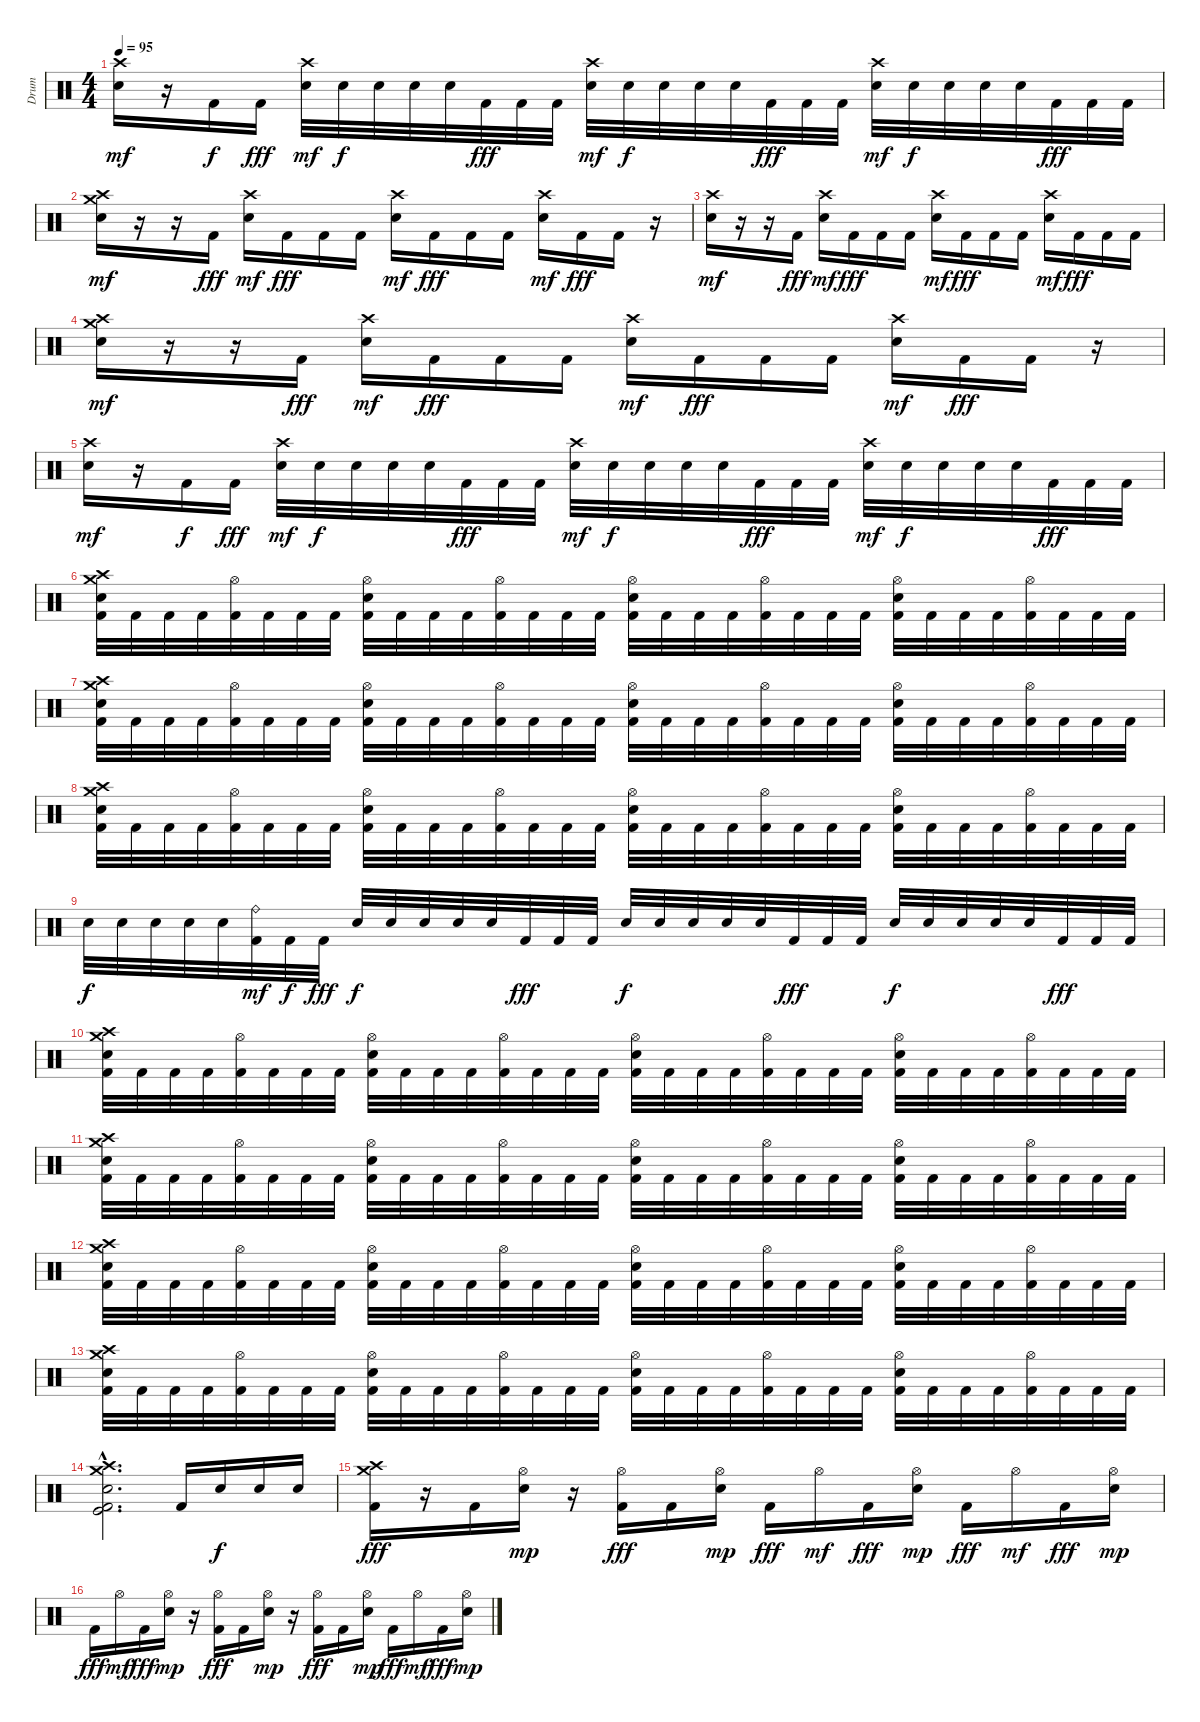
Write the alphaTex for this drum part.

\track ("Drum" "Drum") {instrument percussion}
\staff {score}
\articulation defaults
\ts (4 4)
\tempo 95
\clef neutral
\ks c
("Crash high (hit)" "Electric Snare (hit)").16{dy mf} r.16 "Kick (hit) 2".16{dy f} "Kick (hit) 2".16{dy fff} ("Crash high (hit)" "Electric Snare (hit)").32{dy mf} "Electric Snare (hit)".32{dy f} "Electric Snare (hit)".32 "Electric Snare (hit)".32 "Electric Snare (hit)".32 "Kick (hit) 2".32{dy fff} "Kick (hit) 2".32 "Kick (hit) 2".32 ("Crash high (hit)" "Electric Snare (hit)").32{dy mf} "Electric Snare (hit)".32{dy f} "Electric Snare (hit)".32 "Electric Snare (hit)".32 "Electric Snare (hit)".32 "Kick (hit) 2".32{dy fff} "Kick (hit) 2".32 "Kick (hit) 2".32 ("Crash high (hit)" "Electric Snare (hit)").32{dy mf} "Electric Snare (hit)".32{dy f} "Electric Snare (hit)".32 "Electric Snare (hit)".32 "Electric Snare (hit)".32 "Kick (hit) 2".32{dy fff} "Kick (hit) 2".32 "Kick (hit) 2".32 |
("Crash medium (hit)" "Crash high (hit)" "Electric Snare (hit)").16{dy mf} r.16 r.16 "Kick (hit) 2".16{dy fff} ("Crash high (hit)" "Electric Snare (hit)").16{dy mf} "Kick (hit) 2".16{dy fff} "Kick (hit) 2".16 "Kick (hit) 2".16 ("Crash high (hit)" "Electric Snare (hit)").16{dy mf} "Kick (hit) 2".16{dy fff} "Kick (hit) 2".16 "Kick (hit) 2".16 ("Crash high (hit)" "Electric Snare (hit)").16{dy mf} "Kick (hit) 2".16{dy fff} "Kick (hit) 2".16 r.16 |
("Crash high (hit)" "Electric Snare (hit)").16{dy mf} r.16 r.16 "Kick (hit) 2".16{dy fff} ("Crash high (hit)" "Electric Snare (hit)").16{dy mf} "Kick (hit) 2".16{dy fff} "Kick (hit) 2".16 "Kick (hit) 2".16 ("Crash high (hit)" "Electric Snare (hit)").16{dy mf} "Kick (hit) 2".16{dy fff} "Kick (hit) 2".16 "Kick (hit) 2".16 ("Crash high (hit)" "Electric Snare (hit)").16{dy mf} "Kick (hit) 2".16{dy fff} "Kick (hit) 2".16 "Kick (hit) 2".16 |
("Crash medium (hit)" "Crash high (hit)" "Electric Snare (hit)").16{dy mf} r.16 r.16 "Kick (hit) 2".16{dy fff} ("Crash high (hit)" "Electric Snare (hit)").16{dy mf} "Kick (hit) 2".16{dy fff} "Kick (hit) 2".16 "Kick (hit) 2".16 ("Crash high (hit)" "Electric Snare (hit)").16{dy mf} "Kick (hit) 2".16{dy fff} "Kick (hit) 2".16 "Kick (hit) 2".16 ("Crash high (hit)" "Electric Snare (hit)").16{dy mf} "Kick (hit) 2".16{dy fff} "Kick (hit) 2".16 r.16 |
("Crash high (hit)" "Electric Snare (hit)").16{dy mf} r.16 "Kick (hit) 2".16{dy f} "Kick (hit) 2".16{dy fff} ("Crash high (hit)" "Electric Snare (hit)").32{dy mf} "Electric Snare (hit)".32{dy f} "Electric Snare (hit)".32 "Electric Snare (hit)".32 "Electric Snare (hit)".32 "Kick (hit) 2".32{dy fff} "Kick (hit) 2".32 "Kick (hit) 2".32 ("Crash high (hit)" "Electric Snare (hit)").32{dy mf} "Electric Snare (hit)".32{dy f} "Electric Snare (hit)".32 "Electric Snare (hit)".32 "Electric Snare (hit)".32 "Kick (hit) 2".32{dy fff} "Kick (hit) 2".32 "Kick (hit) 2".32 ("Crash high (hit)" "Electric Snare (hit)").32{dy mf} "Electric Snare (hit)".32{dy f} "Electric Snare (hit)".32 "Electric Snare (hit)".32 "Electric Snare (hit)".32 "Kick (hit) 2".32{dy fff} "Kick (hit) 2".32 "Kick (hit) 2".32 |
("Crash medium (hit)" "Crash high (hit)" "Electric Snare (hit)" "Kick (hit) 2").32 "Kick (hit) 2".32 "Kick (hit) 2".32 "Kick (hit) 2".32 ("Hi-Hat (open)" "Kick (hit) 2").32 "Kick (hit) 2".32 "Kick (hit) 2".32 "Kick (hit) 2".32 ("Hi-Hat (open)" "Electric Snare (hit)" "Kick (hit) 2").32 "Kick (hit) 2".32 "Kick (hit) 2".32 "Kick (hit) 2".32 ("Hi-Hat (open)" "Kick (hit) 2").32 "Kick (hit) 2".32 "Kick (hit) 2".32 "Kick (hit) 2".32 ("Hi-Hat (open)" "Electric Snare (hit)" "Kick (hit) 2").32 "Kick (hit) 2".32 "Kick (hit) 2".32 "Kick (hit) 2".32 ("Hi-Hat (open)" "Kick (hit) 2").32 "Kick (hit) 2".32 "Kick (hit) 2".32 "Kick (hit) 2".32 ("Hi-Hat (open)" "Electric Snare (hit)" "Kick (hit) 2").32 "Kick (hit) 2".32 "Kick (hit) 2".32 "Kick (hit) 2".32 ("Hi-Hat (open)" "Kick (hit) 2").32 "Kick (hit) 2".32 "Kick (hit) 2".32 "Kick (hit) 2".32 |
("Crash medium (hit)" "Crash high (hit)" "Electric Snare (hit)" "Kick (hit) 2").32 "Kick (hit) 2".32 "Kick (hit) 2".32 "Kick (hit) 2".32 ("Hi-Hat (open)" "Kick (hit) 2").32 "Kick (hit) 2".32 "Kick (hit) 2".32 "Kick (hit) 2".32 ("Hi-Hat (open)" "Electric Snare (hit)" "Kick (hit) 2").32 "Kick (hit) 2".32 "Kick (hit) 2".32 "Kick (hit) 2".32 ("Hi-Hat (open)" "Kick (hit) 2").32 "Kick (hit) 2".32 "Kick (hit) 2".32 "Kick (hit) 2".32 ("Hi-Hat (open)" "Electric Snare (hit)" "Kick (hit) 2").32 "Kick (hit) 2".32 "Kick (hit) 2".32 "Kick (hit) 2".32 ("Hi-Hat (open)" "Kick (hit) 2").32 "Kick (hit) 2".32 "Kick (hit) 2".32 "Kick (hit) 2".32 ("Hi-Hat (open)" "Electric Snare (hit)" "Kick (hit) 2").32 "Kick (hit) 2".32 "Kick (hit) 2".32 "Kick (hit) 2".32 ("Hi-Hat (open)" "Kick (hit) 2").32 "Kick (hit) 2".32 "Kick (hit) 2".32 "Kick (hit) 2".32 |
("Crash medium (hit)" "Crash high (hit)" "Electric Snare (hit)" "Kick (hit) 2").32 "Kick (hit) 2".32 "Kick (hit) 2".32 "Kick (hit) 2".32 ("Hi-Hat (open)" "Kick (hit) 2").32 "Kick (hit) 2".32 "Kick (hit) 2".32 "Kick (hit) 2".32 ("Hi-Hat (open)" "Electric Snare (hit)" "Kick (hit) 2").32 "Kick (hit) 2".32 "Kick (hit) 2".32 "Kick (hit) 2".32 ("Hi-Hat (open)" "Kick (hit) 2").32 "Kick (hit) 2".32 "Kick (hit) 2".32 "Kick (hit) 2".32 ("Hi-Hat (open)" "Electric Snare (hit)" "Kick (hit) 2").32 "Kick (hit) 2".32 "Kick (hit) 2".32 "Kick (hit) 2".32 ("Hi-Hat (open)" "Kick (hit) 2").32 "Kick (hit) 2".32 "Kick (hit) 2".32 "Kick (hit) 2".32 ("Hi-Hat (open)" "Electric Snare (hit)" "Kick (hit) 2").32 "Kick (hit) 2".32 "Kick (hit) 2".32 "Kick (hit) 2".32 ("Hi-Hat (open)" "Kick (hit) 2").32 "Kick (hit) 2".32 "Kick (hit) 2".32 "Kick (hit) 2".32 |
"Electric Snare (hit)".32{dy f} "Electric Snare (hit)".32 "Electric Snare (hit)".32 "Electric Snare (hit)".32 "Electric Snare (hit)".32 ("Ride (bell)" "Kick (hit) 2").32{dy mf} "Kick (hit) 2".32{dy f} "Kick (hit) 2".32{dy fff} "Electric Snare (hit)".32{dy f} "Electric Snare (hit)".32 "Electric Snare (hit)".32 "Electric Snare (hit)".32 "Electric Snare (hit)".32 "Kick (hit) 2".32{dy fff} "Kick (hit) 2".32 "Kick (hit) 2".32 "Electric Snare (hit)".32{dy f} "Electric Snare (hit)".32 "Electric Snare (hit)".32 "Electric Snare (hit)".32 "Electric Snare (hit)".32 "Kick (hit) 2".32{dy fff} "Kick (hit) 2".32 "Kick (hit) 2".32 "Electric Snare (hit)".32{dy f} "Electric Snare (hit)".32 "Electric Snare (hit)".32 "Electric Snare (hit)".32 "Electric Snare (hit)".32 "Kick (hit) 2".32{dy fff} "Kick (hit) 2".32 "Kick (hit) 2".32 |
("Crash medium (hit)" "Crash high (hit)" "Electric Snare (hit)" "Kick (hit) 2").32 "Kick (hit) 2".32 "Kick (hit) 2".32 "Kick (hit) 2".32 ("Hi-Hat (open)" "Kick (hit) 2").32 "Kick (hit) 2".32 "Kick (hit) 2".32 "Kick (hit) 2".32 ("Hi-Hat (open)" "Electric Snare (hit)" "Kick (hit) 2").32 "Kick (hit) 2".32 "Kick (hit) 2".32 "Kick (hit) 2".32 ("Hi-Hat (open)" "Kick (hit) 2").32 "Kick (hit) 2".32 "Kick (hit) 2".32 "Kick (hit) 2".32 ("Hi-Hat (open)" "Electric Snare (hit)" "Kick (hit) 2").32 "Kick (hit) 2".32 "Kick (hit) 2".32 "Kick (hit) 2".32 ("Hi-Hat (open)" "Kick (hit) 2").32 "Kick (hit) 2".32 "Kick (hit) 2".32 "Kick (hit) 2".32 ("Hi-Hat (open)" "Electric Snare (hit)" "Kick (hit) 2").32 "Kick (hit) 2".32 "Kick (hit) 2".32 "Kick (hit) 2".32 ("Hi-Hat (open)" "Kick (hit) 2").32 "Kick (hit) 2".32 "Kick (hit) 2".32 "Kick (hit) 2".32 |
("Crash medium (hit)" "Crash high (hit)" "Electric Snare (hit)" "Kick (hit) 2").32 "Kick (hit) 2".32 "Kick (hit) 2".32 "Kick (hit) 2".32 ("Hi-Hat (open)" "Kick (hit) 2").32 "Kick (hit) 2".32 "Kick (hit) 2".32 "Kick (hit) 2".32 ("Hi-Hat (open)" "Electric Snare (hit)" "Kick (hit) 2").32 "Kick (hit) 2".32 "Kick (hit) 2".32 "Kick (hit) 2".32 ("Hi-Hat (open)" "Kick (hit) 2").32 "Kick (hit) 2".32 "Kick (hit) 2".32 "Kick (hit) 2".32 ("Hi-Hat (open)" "Electric Snare (hit)" "Kick (hit) 2").32 "Kick (hit) 2".32 "Kick (hit) 2".32 "Kick (hit) 2".32 ("Hi-Hat (open)" "Kick (hit) 2").32 "Kick (hit) 2".32 "Kick (hit) 2".32 "Kick (hit) 2".32 ("Hi-Hat (open)" "Electric Snare (hit)" "Kick (hit) 2").32 "Kick (hit) 2".32 "Kick (hit) 2".32 "Kick (hit) 2".32 ("Hi-Hat (open)" "Kick (hit) 2").32 "Kick (hit) 2".32 "Kick (hit) 2".32 "Kick (hit) 2".32 |
("Crash medium (hit)" "Crash high (hit)" "Electric Snare (hit)" "Kick (hit) 2").32 "Kick (hit) 2".32 "Kick (hit) 2".32 "Kick (hit) 2".32 ("Hi-Hat (open)" "Kick (hit) 2").32 "Kick (hit) 2".32 "Kick (hit) 2".32 "Kick (hit) 2".32 ("Hi-Hat (open)" "Electric Snare (hit)" "Kick (hit) 2").32 "Kick (hit) 2".32 "Kick (hit) 2".32 "Kick (hit) 2".32 ("Hi-Hat (open)" "Kick (hit) 2").32 "Kick (hit) 2".32 "Kick (hit) 2".32 "Kick (hit) 2".32 ("Hi-Hat (open)" "Electric Snare (hit)" "Kick (hit) 2").32 "Kick (hit) 2".32 "Kick (hit) 2".32 "Kick (hit) 2".32 ("Hi-Hat (open)" "Kick (hit) 2").32 "Kick (hit) 2".32 "Kick (hit) 2".32 "Kick (hit) 2".32 ("Hi-Hat (open)" "Electric Snare (hit)" "Kick (hit) 2").32 "Kick (hit) 2".32 "Kick (hit) 2".32 "Kick (hit) 2".32 ("Hi-Hat (open)" "Kick (hit) 2").32 "Kick (hit) 2".32 "Kick (hit) 2".32 "Kick (hit) 2".32 |
("Crash medium (hit)" "Crash high (hit)" "Electric Snare (hit)" "Kick (hit) 2").32 "Kick (hit) 2".32 "Kick (hit) 2".32 "Kick (hit) 2".32 ("Hi-Hat (open)" "Kick (hit) 2").32 "Kick (hit) 2".32 "Kick (hit) 2".32 "Kick (hit) 2".32 ("Hi-Hat (open)" "Electric Snare (hit)" "Kick (hit) 2").32 "Kick (hit) 2".32 "Kick (hit) 2".32 "Kick (hit) 2".32 ("Hi-Hat (open)" "Kick (hit) 2").32 "Kick (hit) 2".32 "Kick (hit) 2".32 "Kick (hit) 2".32 ("Hi-Hat (open)" "Electric Snare (hit)" "Kick (hit) 2").32 "Kick (hit) 2".32 "Kick (hit) 2".32 "Kick (hit) 2".32 ("Hi-Hat (open)" "Kick (hit) 2").32 "Kick (hit) 2".32 "Kick (hit) 2".32 "Kick (hit) 2".32 ("Hi-Hat (open)" "Electric Snare (hit)" "Kick (hit) 2").32 "Kick (hit) 2".32 "Kick (hit) 2".32 "Kick (hit) 2".32 ("Hi-Hat (open)" "Kick (hit) 2").32 "Kick (hit) 2".32 "Kick (hit) 2".32 "Kick (hit) 2".32 |
("Crash medium (hit)"{hac} "Crash high (hit)"{hac} "Electric Snare (hit)"{hac} "Kick (hit)"{hac} "Kick (hit) 2"{hac}).2{d} "Kick (hit) 2".16 "Electric Snare (hit)".16{dy f} "Electric Snare (hit)".16 "Electric Snare (hit)".16 |
("Crash medium (hit)" "Crash high (hit)" "Kick (hit) 2").16{dy fff} r.16 "Kick (hit) 2".16 ("Hi-Hat (open)" "Electric Snare (hit)").16{dy mp} r.16 ("Hi-Hat (open)" "Kick (hit) 2").16{dy fff} "Kick (hit) 2".16 ("Hi-Hat (open)" "Electric Snare (hit)").16{dy mp} "Kick (hit) 2".16{dy fff} "Hi-Hat (open)".16{dy mf} "Kick (hit) 2".16{dy fff} ("Hi-Hat (open)" "Electric Snare (hit)").16{dy mp} "Kick (hit) 2".16{dy fff} "Hi-Hat (open)".16{dy mf} "Kick (hit) 2".16{dy fff} ("Hi-Hat (open)" "Electric Snare (hit)").16{dy mp} |
"Kick (hit) 2".16{dy fff} "Hi-Hat (open)".16{dy mf} "Kick (hit) 2".16{dy fff} ("Hi-Hat (open)" "Electric Snare (hit)").16{dy mp} r.16 ("Hi-Hat (open)" "Kick (hit) 2").16{dy fff} "Kick (hit) 2".16 ("Hi-Hat (open)" "Electric Snare (hit)").16{dy mp} r.16 ("Hi-Hat (open)" "Kick (hit) 2").16{dy fff} "Kick (hit) 2".16 ("Hi-Hat (open)" "Electric Snare (hit)").16{dy mp} "Kick (hit) 2".16{dy fff} "Hi-Hat (open)".16{dy mf} "Kick (hit) 2".16{dy fff} ("Hi-Hat (open)" "Electric Snare (hit)").16{dy mp}
